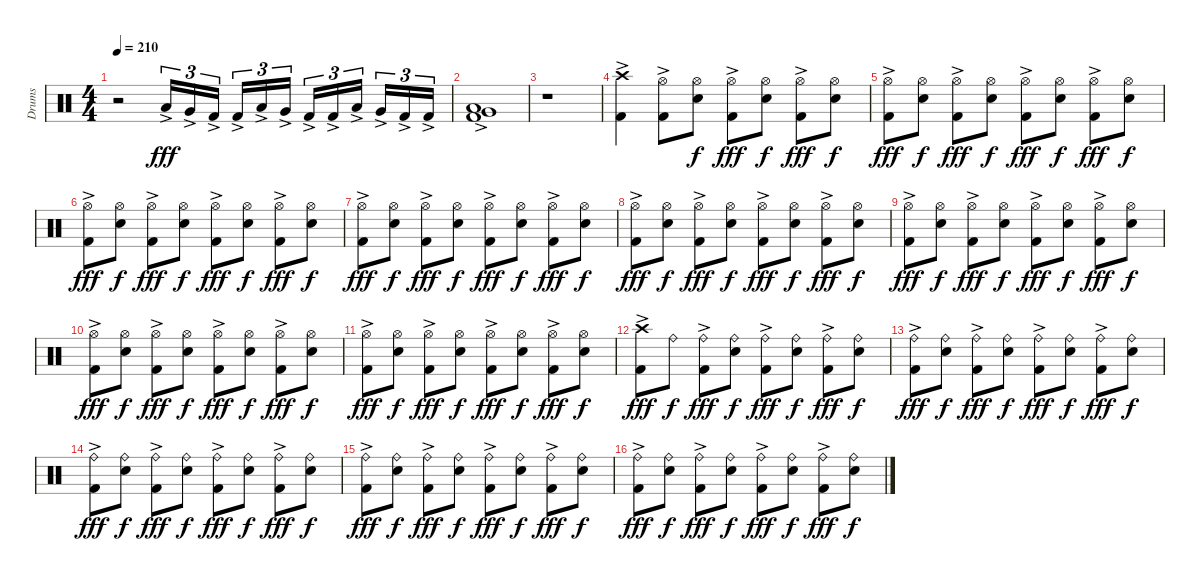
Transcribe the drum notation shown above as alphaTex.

\track ("Drums" "Drums") {instrument percussion}
\staff {score}
\articulation defaults
\ts (4 4)
\tempo 210
\clef neutral
\ks c
r.2{dy f} "Low Floor Tom (hit)"{ac}.16{tu (3 2) dy fff} "Very Low Tom (hit)"{ac}.16{tu (3 2)} "Kick (hit) 2"{ac}.16{tu (3 2)} "Kick (hit) 2"{ac}.16{tu (3 2)} "Low Floor Tom (hit)"{ac}.16{tu (3 2)} "Very Low Tom (hit)"{ac}.16{tu (3 2)} "Kick (hit) 2"{ac}.16{tu (3 2)} "Kick (hit) 2"{ac}.16{tu (3 2)} "Low Floor Tom (hit)"{ac}.16{tu (3 2)} "Very Low Tom (hit)"{ac}.16{tu (3 2)} "Kick (hit) 2"{ac}.16{tu (3 2)} "Kick (hit) 2"{ac}.16{tu (3 2)} |
("Very Low Tom (hit)"{ac} "Low Floor Tom (hit)"{ac} "Kick (hit) 2"{ac}).1 |
r.1 |
("Crash high (hit)" "Kick (hit) 2"{ac}).4 ("Hi-Hat (open)" "Kick (hit) 2"{ac}).8 ("Hi-Hat (open)" "Snare (hit) 2").8{dy f} ("Hi-Hat (open)" "Kick (hit) 2"{ac}).8{dy fff} ("Hi-Hat (open)" "Snare (hit) 2").8{dy f} ("Hi-Hat (open)" "Kick (hit) 2"{ac}).8{dy fff} ("Hi-Hat (open)" "Snare (hit) 2").8{dy f} |
("Hi-Hat (open)" "Kick (hit) 2"{ac}).8{dy fff} ("Hi-Hat (open)" "Snare (hit) 2").8{dy f} ("Hi-Hat (open)" "Kick (hit) 2"{ac}).8{dy fff} ("Hi-Hat (open)" "Snare (hit) 2").8{dy f} ("Hi-Hat (open)" "Kick (hit) 2"{ac}).8{dy fff} ("Hi-Hat (open)" "Snare (hit) 2").8{dy f} ("Hi-Hat (open)" "Kick (hit) 2"{ac}).8{dy fff} ("Hi-Hat (open)" "Snare (hit) 2").8{dy f} |
("Hi-Hat (open)" "Kick (hit) 2"{ac}).8{dy fff} ("Hi-Hat (open)" "Snare (hit) 2").8{dy f} ("Hi-Hat (open)" "Kick (hit) 2"{ac}).8{dy fff} ("Hi-Hat (open)" "Snare (hit) 2").8{dy f} ("Hi-Hat (open)" "Kick (hit) 2"{ac}).8{dy fff} ("Hi-Hat (open)" "Snare (hit) 2").8{dy f} ("Hi-Hat (open)" "Kick (hit) 2"{ac}).8{dy fff} ("Hi-Hat (open)" "Snare (hit) 2").8{dy f} |
("Hi-Hat (open)" "Kick (hit) 2"{ac}).8{dy fff} ("Hi-Hat (open)" "Snare (hit) 2").8{dy f} ("Hi-Hat (open)" "Kick (hit) 2"{ac}).8{dy fff} ("Hi-Hat (open)" "Snare (hit) 2").8{dy f} ("Hi-Hat (open)" "Kick (hit) 2"{ac}).8{dy fff} ("Hi-Hat (open)" "Snare (hit) 2").8{dy f} ("Hi-Hat (open)" "Kick (hit) 2"{ac}).8{dy fff} ("Hi-Hat (open)" "Snare (hit) 2").8{dy f} |
("Hi-Hat (open)" "Kick (hit) 2"{ac}).8{dy fff} ("Hi-Hat (open)" "Snare (hit) 2").8{dy f} ("Hi-Hat (open)" "Kick (hit) 2"{ac}).8{dy fff} ("Hi-Hat (open)" "Snare (hit) 2").8{dy f} ("Hi-Hat (open)" "Kick (hit) 2"{ac}).8{dy fff} ("Hi-Hat (open)" "Snare (hit) 2").8{dy f} ("Hi-Hat (open)" "Kick (hit) 2"{ac}).8{dy fff} ("Hi-Hat (open)" "Snare (hit) 2").8{dy f} |
("Hi-Hat (open)" "Kick (hit) 2"{ac}).8{dy fff} ("Hi-Hat (open)" "Snare (hit) 2").8{dy f} ("Hi-Hat (open)" "Kick (hit) 2"{ac}).8{dy fff} ("Hi-Hat (open)" "Snare (hit) 2").8{dy f} ("Hi-Hat (open)" "Kick (hit) 2"{ac}).8{dy fff} ("Hi-Hat (open)" "Snare (hit) 2").8{dy f} ("Hi-Hat (open)" "Kick (hit) 2"{ac}).8{dy fff} ("Hi-Hat (open)" "Snare (hit) 2").8{dy f} |
("Hi-Hat (open)" "Kick (hit) 2"{ac}).8{dy fff} ("Hi-Hat (open)" "Snare (hit) 2").8{dy f} ("Hi-Hat (open)" "Kick (hit) 2"{ac}).8{dy fff} ("Hi-Hat (open)" "Snare (hit) 2").8{dy f} ("Hi-Hat (open)" "Kick (hit) 2"{ac}).8{dy fff} ("Hi-Hat (open)" "Snare (hit) 2").8{dy f} ("Hi-Hat (open)" "Kick (hit) 2"{ac}).8{dy fff} ("Hi-Hat (open)" "Snare (hit) 2").8{dy f} |
("Hi-Hat (open)" "Kick (hit) 2"{ac}).8{dy fff} ("Hi-Hat (open)" "Snare (hit) 2").8{dy f} ("Hi-Hat (open)" "Kick (hit) 2"{ac}).8{dy fff} ("Hi-Hat (open)" "Snare (hit) 2").8{dy f} ("Hi-Hat (open)" "Kick (hit) 2"{ac}).8{dy fff} ("Hi-Hat (open)" "Snare (hit) 2").8{dy f} ("Hi-Hat (open)" "Kick (hit) 2"{ac}).8{dy fff} ("Hi-Hat (open)" "Snare (hit) 2").8{dy f} |
("Crash high (hit)" "Kick (hit) 2"{ac}).8{dy fff} "Ride (bell)".8{dy f} ("Ride (bell)" "Kick (hit) 2"{ac}).8{dy fff} ("Ride (bell)" "Snare (hit) 2").8{dy f} ("Ride (bell)" "Kick (hit) 2"{ac}).8{dy fff} ("Ride (bell)" "Snare (hit) 2").8{dy f} ("Ride (bell)" "Kick (hit) 2"{ac}).8{dy fff} ("Ride (bell)" "Snare (hit) 2").8{dy f} |
("Ride (bell)" "Kick (hit) 2"{ac}).8{dy fff} ("Ride (bell)" "Snare (hit) 2").8{dy f} ("Ride (bell)" "Kick (hit) 2"{ac}).8{dy fff} ("Ride (bell)" "Snare (hit) 2").8{dy f} ("Ride (bell)" "Kick (hit) 2"{ac}).8{dy fff} ("Ride (bell)" "Snare (hit) 2").8{dy f} ("Ride (bell)" "Kick (hit) 2"{ac}).8{dy fff} ("Ride (bell)" "Snare (hit) 2").8{dy f} |
("Ride (bell)" "Kick (hit) 2"{ac}).8{dy fff} ("Ride (bell)" "Snare (hit) 2").8{dy f} ("Ride (bell)" "Kick (hit) 2"{ac}).8{dy fff} ("Ride (bell)" "Snare (hit) 2").8{dy f} ("Ride (bell)" "Kick (hit) 2"{ac}).8{dy fff} ("Ride (bell)" "Snare (hit) 2").8{dy f} ("Ride (bell)" "Kick (hit) 2"{ac}).8{dy fff} ("Ride (bell)" "Snare (hit) 2").8{dy f} |
("Ride (bell)" "Kick (hit) 2"{ac}).8{dy fff} ("Ride (bell)" "Snare (hit) 2").8{dy f} ("Ride (bell)" "Kick (hit) 2"{ac}).8{dy fff} ("Ride (bell)" "Snare (hit) 2").8{dy f} ("Ride (bell)" "Kick (hit) 2"{ac}).8{dy fff} ("Ride (bell)" "Snare (hit) 2").8{dy f} ("Ride (bell)" "Kick (hit) 2"{ac}).8{dy fff} ("Ride (bell)" "Snare (hit) 2").8{dy f} |
("Ride (bell)" "Kick (hit) 2"{ac}).8{dy fff} ("Ride (bell)" "Snare (hit) 2").8{dy f} ("Ride (bell)" "Kick (hit) 2"{ac}).8{dy fff} ("Ride (bell)" "Snare (hit) 2").8{dy f} ("Ride (bell)" "Kick (hit) 2"{ac}).8{dy fff} ("Ride (bell)" "Snare (hit) 2").8{dy f} ("Ride (bell)" "Kick (hit) 2"{ac}).8{dy fff} ("Ride (bell)" "Snare (hit) 2").8{dy f}
